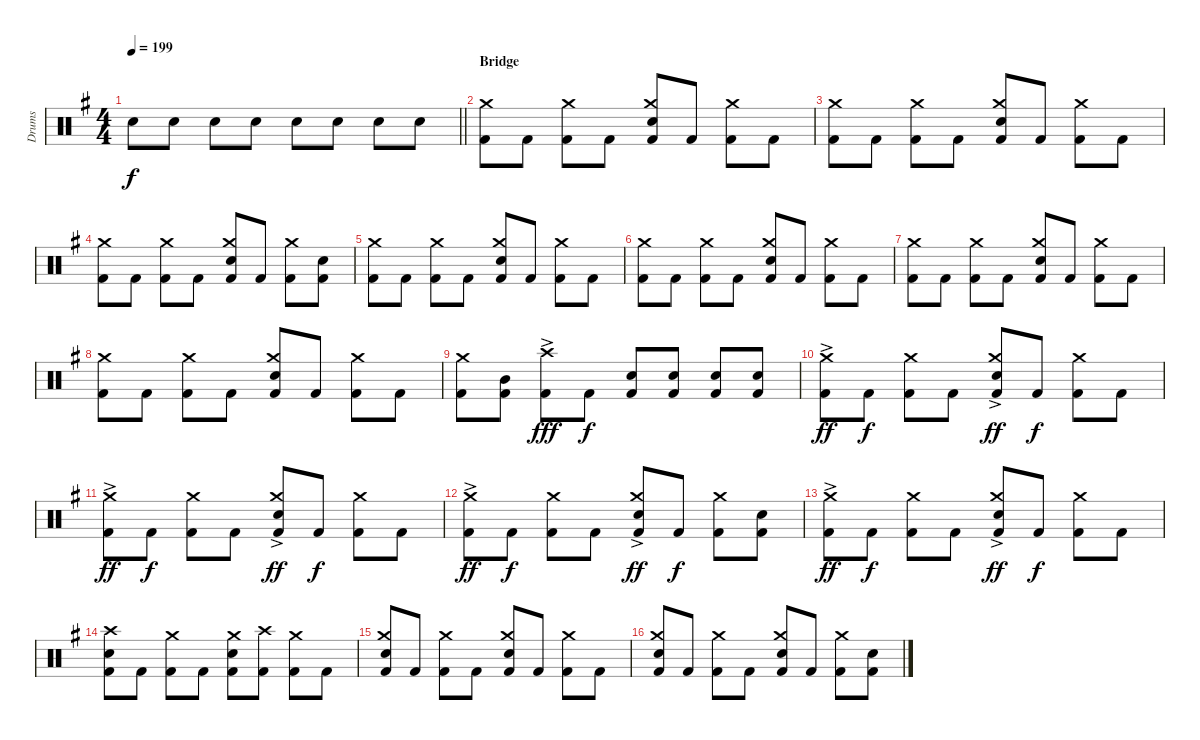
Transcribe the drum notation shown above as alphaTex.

\track ("Drums" "Drums") {instrument percussion}
\staff {score}
\articulation defaults
\ts (4 4)
\tempo 199
\clef neutral
\barLineRight lightlight
\ks eminor "Electric Snare (hit)".8{dy f} "Electric Snare (hit)".8 "Electric Snare (hit)".8 "Electric Snare (hit)".8 "Electric Snare (hit)".8 "Electric Snare (hit)".8 "Electric Snare (hit)".8 "Electric Snare (hit)".8
|
\section ("" "Bridge")
("Crash medium (hit)" "Kick (hit) 2").8 "Kick (hit) 2".8 ("Crash medium (hit)" "Kick (hit) 2").8 "Kick (hit) 2".8 ("Crash medium (hit)" "Electric Snare (hit)" "Kick (hit) 2").8 "Kick (hit) 2".8 ("Crash medium (hit)" "Kick (hit) 2").8 "Kick (hit) 2".8 |
("Crash medium (hit)" "Kick (hit) 2").8 "Kick (hit) 2".8 ("Crash medium (hit)" "Kick (hit) 2").8 "Kick (hit) 2".8 ("Crash medium (hit)" "Electric Snare (hit)" "Kick (hit) 2").8 "Kick (hit) 2".8 ("Crash medium (hit)" "Kick (hit) 2").8 "Kick (hit) 2".8 |
("Crash medium (hit)" "Kick (hit) 2").8 "Kick (hit) 2".8 ("Crash medium (hit)" "Kick (hit) 2").8 "Kick (hit) 2".8 ("Crash medium (hit)" "Electric Snare (hit)" "Kick (hit) 2").8 "Kick (hit) 2".8 ("Crash medium (hit)" "Kick (hit) 2").8 ("Electric Snare (hit)" "Kick (hit) 2").8 |
("Crash medium (hit)" "Kick (hit) 2").8 "Kick (hit) 2".8 ("Crash medium (hit)" "Kick (hit) 2").8 "Kick (hit) 2".8 ("Crash medium (hit)" "Electric Snare (hit)" "Kick (hit) 2").8 "Kick (hit) 2".8 ("Crash medium (hit)" "Kick (hit) 2").8 "Kick (hit) 2".8 |
("Crash medium (hit)" "Kick (hit) 2").8 "Kick (hit) 2".8 ("Crash medium (hit)" "Kick (hit) 2").8 "Kick (hit) 2".8 ("Crash medium (hit)" "Electric Snare (hit)" "Kick (hit) 2").8 "Kick (hit) 2".8 ("Crash medium (hit)" "Kick (hit) 2").8 "Kick (hit) 2".8 |
("Crash medium (hit)" "Kick (hit) 2").8 "Kick (hit) 2".8 ("Crash medium (hit)" "Kick (hit) 2").8 "Kick (hit) 2".8 ("Crash medium (hit)" "Electric Snare (hit)" "Kick (hit) 2").8 "Kick (hit) 2".8 ("Crash medium (hit)" "Kick (hit) 2").8 "Kick (hit) 2".8 |
("Crash medium (hit)" "Kick (hit) 2").8 "Kick (hit) 2".8 ("Crash medium (hit)" "Kick (hit) 2").8 "Kick (hit) 2".8 ("Crash medium (hit)" "Electric Snare (hit)" "Kick (hit) 2").8 "Kick (hit) 2".8 ("Crash medium (hit)" "Kick (hit) 2").8 "Kick (hit) 2".8 |
("Crash medium (hit)" "Kick (hit) 2").8 ("Mid Tom (hit)" "Kick (hit) 2").8 ("Crash high (hit)"{ac} "Kick (hit) 2").8{dy fff} "Kick (hit) 2".8{dy f} ("Electric Snare (hit)" "Kick (hit) 2").8 ("Electric Snare (hit)" "Kick (hit) 2").8 ("Electric Snare (hit)" "Kick (hit) 2").8 ("Electric Snare (hit)" "Kick (hit) 2").8 |
("Crash medium (hit)"{ac} "Kick (hit) 2").8{dy ff} "Kick (hit) 2".8{dy f} ("Crash medium (hit)" "Kick (hit) 2").8 "Kick (hit) 2".8 ("Crash medium (hit)"{ac} "Electric Snare (hit)" "Kick (hit) 2").8{dy ff} "Kick (hit) 2".8{dy f} ("Crash medium (hit)" "Kick (hit) 2").8 "Kick (hit) 2".8 |
("Crash medium (hit)"{ac} "Kick (hit) 2").8{dy ff} "Kick (hit) 2".8{dy f} ("Crash medium (hit)" "Kick (hit) 2").8 "Kick (hit) 2".8 ("Crash medium (hit)"{ac} "Electric Snare (hit)" "Kick (hit) 2").8{dy ff} "Kick (hit) 2".8{dy f} ("Crash medium (hit)" "Kick (hit) 2").8 "Kick (hit) 2".8 |
("Crash medium (hit)"{ac} "Kick (hit) 2").8{dy ff} "Kick (hit) 2".8{dy f} ("Crash medium (hit)" "Kick (hit) 2").8 "Kick (hit) 2".8 ("Crash medium (hit)"{ac} "Electric Snare (hit)" "Kick (hit) 2").8{dy ff} "Kick (hit) 2".8{dy f} ("Crash medium (hit)" "Kick (hit) 2").8 ("Electric Snare (hit)" "Kick (hit) 2").8 |
("Crash medium (hit)"{ac} "Kick (hit) 2").8{dy ff} "Kick (hit) 2".8{dy f} ("Crash medium (hit)" "Kick (hit) 2").8 "Kick (hit) 2".8 ("Crash medium (hit)"{ac} "Electric Snare (hit)" "Kick (hit) 2").8{dy ff} "Kick (hit) 2".8{dy f} ("Crash medium (hit)" "Kick (hit) 2").8 "Kick (hit) 2".8 |
("Crash high (hit)" "Electric Snare (hit)" "Kick (hit) 2").8 "Kick (hit) 2".8 ("Crash medium (hit)" "Kick (hit) 2").8 "Kick (hit) 2".8 ("Crash medium (hit)" "Electric Snare (hit)" "Kick (hit) 2").8 ("Crash high (hit)" "Kick (hit) 2").8 ("Crash medium (hit)" "Kick (hit) 2").8 "Kick (hit) 2".8 |
("Crash medium (hit)" "Electric Snare (hit)" "Kick (hit) 2").8 "Kick (hit) 2".8 ("Crash medium (hit)" "Kick (hit) 2").8 "Kick (hit) 2".8 ("Crash medium (hit)" "Electric Snare (hit)" "Kick (hit) 2").8 "Kick (hit) 2".8 ("Crash medium (hit)" "Kick (hit) 2").8 "Kick (hit) 2".8 |
("Crash medium (hit)" "Electric Snare (hit)" "Kick (hit) 2").8 "Kick (hit) 2".8 ("Crash medium (hit)" "Kick (hit) 2").8 "Kick (hit) 2".8 ("Crash medium (hit)" "Electric Snare (hit)" "Kick (hit) 2").8 "Kick (hit) 2".8 ("Crash medium (hit)" "Kick (hit) 2").8 ("Electric Snare (hit)" "Kick (hit) 2").8
